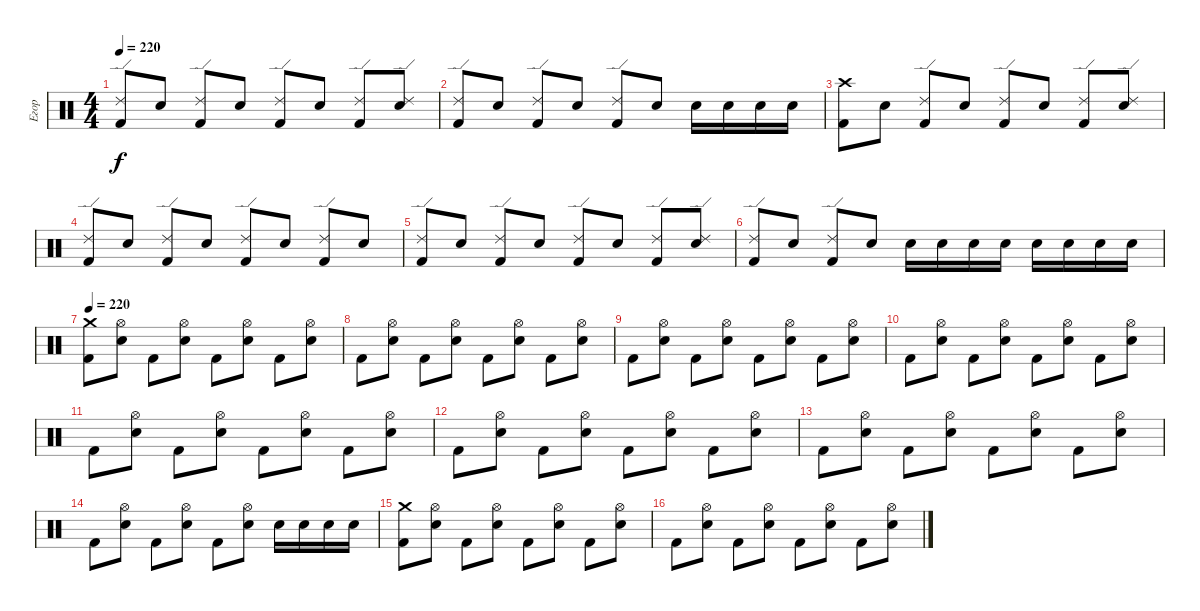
\track ("Егор" "Егор") {instrument percussion}
\staff {score}
\articulation defaults
\ts (4 4)
\tempo 220
\clef neutral
\ks c
("Ride (edge) 2" "Kick (hit) 2").8{dy f} "Snare (hit) 2".8 ("Ride (edge) 2" "Kick (hit) 2").8 "Snare (hit) 2".8 ("Ride (edge) 2" "Kick (hit) 2").8 "Snare (hit) 2".8 ("Ride (edge) 2" "Kick (hit) 2").8 ("Ride (edge) 2" "Snare (hit) 2").8 |
("Ride (edge) 2" "Kick (hit) 2").8 "Snare (hit) 2".8 ("Ride (edge) 2" "Kick (hit) 2").8 "Snare (hit) 2".8 ("Ride (edge) 2" "Kick (hit) 2").8 "Snare (hit) 2".8 "Snare (hit) 2".16 "Snare (hit) 2".16 "Snare (hit) 2".16 "Snare (hit) 2".16 |
("Crash high (hit)" "Kick (hit) 2").8 "Snare (hit) 2".8 ("Ride (edge) 2" "Kick (hit) 2").8 "Snare (hit) 2".8 ("Ride (edge) 2" "Kick (hit) 2").8 "Snare (hit) 2".8 ("Ride (edge) 2" "Kick (hit) 2").8 ("Ride (edge) 2" "Snare (hit) 2").8 |
("Ride (edge) 2" "Kick (hit) 2").8 "Snare (hit) 2".8 ("Ride (edge) 2" "Kick (hit) 2").8 "Snare (hit) 2".8 ("Ride (edge) 2" "Kick (hit) 2").8 "Snare (hit) 2".8 ("Ride (edge) 2" "Kick (hit) 2").8 "Snare (hit) 2".8 |
("Ride (edge) 2" "Kick (hit) 2").8 "Snare (hit) 2".8 ("Ride (edge) 2" "Kick (hit) 2").8 "Snare (hit) 2".8 ("Ride (edge) 2" "Kick (hit) 2").8 "Snare (hit) 2".8 ("Ride (edge) 2" "Kick (hit) 2").8 ("Ride (edge) 2" "Snare (hit) 2").8 |
("Ride (edge) 2" "Kick (hit) 2").8 "Snare (hit) 2".8 ("Ride (edge) 2" "Kick (hit) 2").8 "Snare (hit) 2".8 "Snare (hit) 2".16 "Snare (hit) 2".16 "Snare (hit) 2".16 "Snare (hit) 2".16 "Snare (hit) 2".16 "Snare (hit) 2".16 "Snare (hit) 2".16 "Snare (hit) 2".16 |
\tempo 220
("Crash medium (hit)" "Kick (hit) 2").8 ("Hi-Hat (open)" "Snare (hit) 2").8 "Kick (hit) 2".8 ("Hi-Hat (open)" "Snare (hit) 2").8 "Kick (hit) 2".8 ("Hi-Hat (open)" "Snare (hit) 2").8 "Kick (hit) 2".8 ("Hi-Hat (open)" "Snare (hit) 2").8 |
"Kick (hit) 2".8 ("Hi-Hat (open)" "Snare (hit) 2").8 "Kick (hit) 2".8 ("Hi-Hat (open)" "Snare (hit) 2").8 "Kick (hit) 2".8 ("Hi-Hat (open)" "Snare (hit) 2").8 "Kick (hit) 2".8 ("Hi-Hat (open)" "Snare (hit) 2").8 |
"Kick (hit) 2".8 ("Hi-Hat (open)" "Snare (hit) 2").8 "Kick (hit) 2".8 ("Hi-Hat (open)" "Snare (hit) 2").8 "Kick (hit) 2".8 ("Hi-Hat (open)" "Snare (hit) 2").8 "Kick (hit) 2".8 ("Hi-Hat (open)" "Snare (hit) 2").8 |
"Kick (hit) 2".8 ("Hi-Hat (open)" "Snare (hit) 2").8 "Kick (hit) 2".8 ("Hi-Hat (open)" "Snare (hit) 2").8 "Kick (hit) 2".8 ("Hi-Hat (open)" "Snare (hit) 2").8 "Kick (hit) 2".8 ("Hi-Hat (open)" "Snare (hit) 2").8 |
"Kick (hit) 2".8 ("Hi-Hat (open)" "Snare (hit) 2").8 "Kick (hit) 2".8 ("Hi-Hat (open)" "Snare (hit) 2").8 "Kick (hit) 2".8 ("Hi-Hat (open)" "Snare (hit) 2").8 "Kick (hit) 2".8 ("Hi-Hat (open)" "Snare (hit) 2").8 |
"Kick (hit) 2".8 ("Hi-Hat (open)" "Snare (hit) 2").8 "Kick (hit) 2".8 ("Hi-Hat (open)" "Snare (hit) 2").8 "Kick (hit) 2".8 ("Hi-Hat (open)" "Snare (hit) 2").8 "Kick (hit) 2".8 ("Hi-Hat (open)" "Snare (hit) 2").8 |
"Kick (hit) 2".8 ("Hi-Hat (open)" "Snare (hit) 2").8 "Kick (hit) 2".8 ("Hi-Hat (open)" "Snare (hit) 2").8 "Kick (hit) 2".8 ("Hi-Hat (open)" "Snare (hit) 2").8 "Kick (hit) 2".8 ("Hi-Hat (open)" "Snare (hit) 2").8 |
"Kick (hit) 2".8 ("Hi-Hat (open)" "Snare (hit) 2").8 "Kick (hit) 2".8 ("Hi-Hat (open)" "Snare (hit) 2").8 "Kick (hit) 2".8 ("Hi-Hat (open)" "Snare (hit) 2").8 "Snare (hit) 2".16 "Snare (hit) 2".16 "Snare (hit) 2".16 "Snare (hit) 2".16 |
("Crash medium (hit)" "Kick (hit) 2").8 ("Hi-Hat (open)" "Snare (hit) 2").8 "Kick (hit) 2".8 ("Hi-Hat (open)" "Snare (hit) 2").8 "Kick (hit) 2".8 ("Hi-Hat (open)" "Snare (hit) 2").8 "Kick (hit) 2".8 ("Hi-Hat (open)" "Snare (hit) 2").8 |
"Kick (hit) 2".8 ("Hi-Hat (open)" "Snare (hit) 2").8 "Kick (hit) 2".8 ("Hi-Hat (open)" "Snare (hit) 2").8 "Kick (hit) 2".8 ("Hi-Hat (open)" "Snare (hit) 2").8 "Kick (hit) 2".8 ("Hi-Hat (open)" "Snare (hit) 2").8
